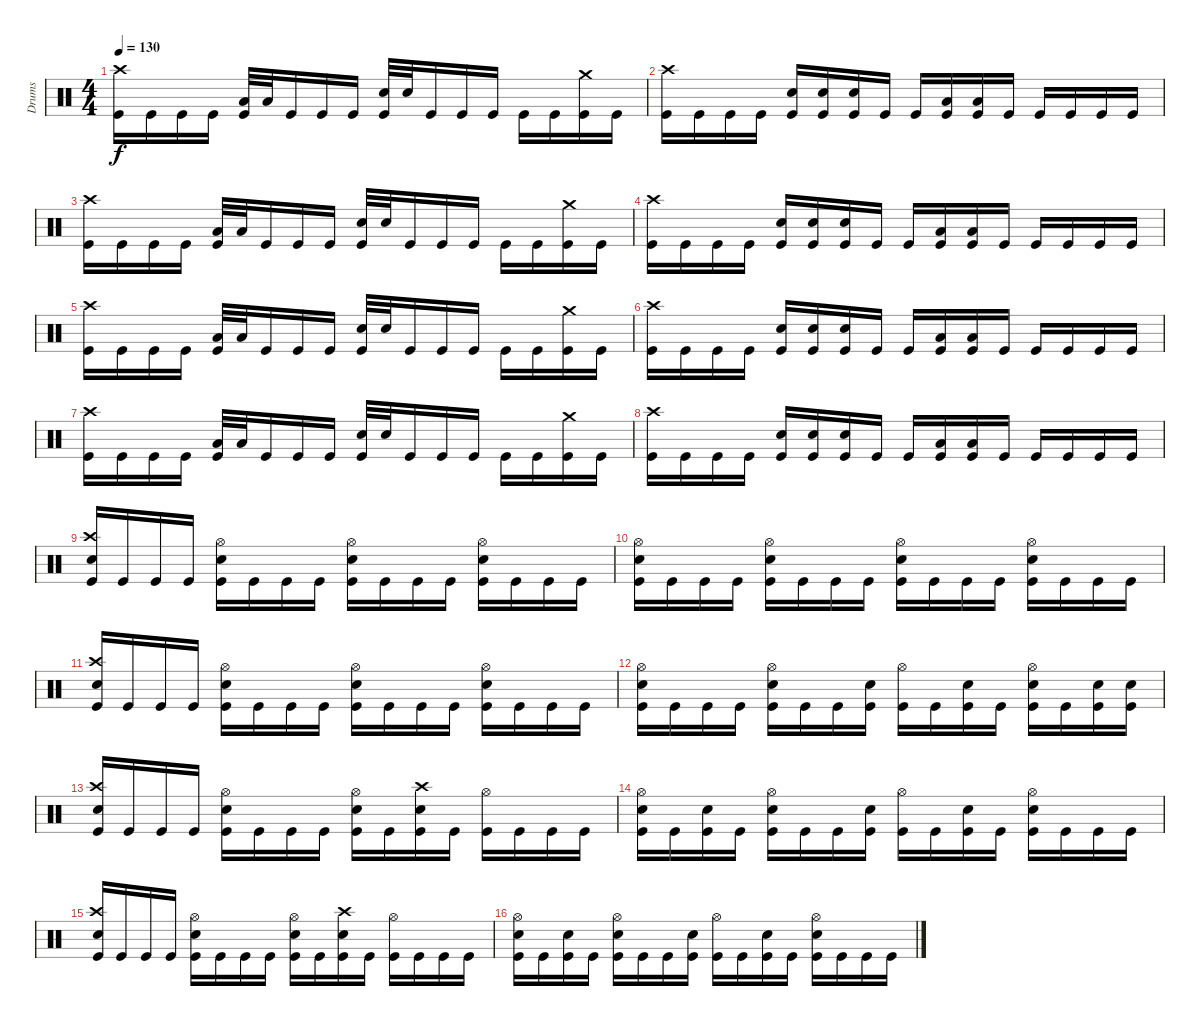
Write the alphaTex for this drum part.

\track ("Drums" "Drums") {instrument percussion}
\staff {score}
\articulation defaults
\ts (4 4)
\tempo 130
\clef neutral
\ks c
("Kick (hit)" "Crash high (hit)").16{dy f} "Kick (hit)".16 "Kick (hit)".16 "Kick (hit)".16 ("Kick (hit)" "Low Tom (hit)").32 "Low Tom (hit)".32 "Kick (hit)".16 "Kick (hit)".16 "Kick (hit)".16 ("Kick (hit)" "Snare (hit) 2").32 "Snare (hit) 2".32 "Kick (hit)".16 "Kick (hit)".16 "Kick (hit)".16 "Kick (hit)".16 "Kick (hit)".16 ("Kick (hit)" "Crash medium (hit)").16 "Kick (hit)".16 |
("Kick (hit)" "Crash high (hit)").16 "Kick (hit)".16 "Kick (hit)".16 "Kick (hit)".16 ("Kick (hit)" "Snare (hit) 2").16 ("Kick (hit)" "Snare (hit) 2").16 ("Kick (hit)" "Snare (hit) 2").16 "Kick (hit)".16 "Kick (hit)".16 ("Kick (hit)" "Low Tom (hit)").16 ("Kick (hit)" "Low Tom (hit)").16 "Kick (hit)".16 "Kick (hit)".16 "Kick (hit)".16 "Kick (hit)".16 "Kick (hit)".16 |
("Kick (hit)" "Crash high (hit)").16 "Kick (hit)".16 "Kick (hit)".16 "Kick (hit)".16 ("Kick (hit)" "Low Tom (hit)").32 "Low Tom (hit)".32 "Kick (hit)".16 "Kick (hit)".16 "Kick (hit)".16 ("Kick (hit)" "Snare (hit) 2").32 "Snare (hit) 2".32 "Kick (hit)".16 "Kick (hit)".16 "Kick (hit)".16 "Kick (hit)".16 "Kick (hit)".16 ("Kick (hit)" "Crash medium (hit)").16 "Kick (hit)".16 |
("Kick (hit)" "Crash high (hit)").16 "Kick (hit)".16 "Kick (hit)".16 "Kick (hit)".16 ("Kick (hit)" "Snare (hit) 2").16 ("Kick (hit)" "Snare (hit) 2").16 ("Kick (hit)" "Snare (hit) 2").16 "Kick (hit)".16 "Kick (hit)".16 ("Kick (hit)" "Low Tom (hit)").16 ("Kick (hit)" "Low Tom (hit)").16 "Kick (hit)".16 "Kick (hit)".16 "Kick (hit)".16 "Kick (hit)".16 "Kick (hit)".16 |
("Kick (hit)" "Crash high (hit)").16 "Kick (hit)".16 "Kick (hit)".16 "Kick (hit)".16 ("Kick (hit)" "Low Tom (hit)").32 "Low Tom (hit)".32 "Kick (hit)".16 "Kick (hit)".16 "Kick (hit)".16 ("Kick (hit)" "Snare (hit) 2").32 "Snare (hit) 2".32 "Kick (hit)".16 "Kick (hit)".16 "Kick (hit)".16 "Kick (hit)".16 "Kick (hit)".16 ("Kick (hit)" "Crash medium (hit)").16 "Kick (hit)".16 |
("Kick (hit)" "Crash high (hit)").16 "Kick (hit)".16 "Kick (hit)".16 "Kick (hit)".16 ("Kick (hit)" "Snare (hit) 2").16 ("Kick (hit)" "Snare (hit) 2").16 ("Kick (hit)" "Snare (hit) 2").16 "Kick (hit)".16 "Kick (hit)".16 ("Kick (hit)" "Low Tom (hit)").16 ("Kick (hit)" "Low Tom (hit)").16 "Kick (hit)".16 "Kick (hit)".16 "Kick (hit)".16 "Kick (hit)".16 "Kick (hit)".16 |
("Kick (hit)" "Crash high (hit)").16 "Kick (hit)".16 "Kick (hit)".16 "Kick (hit)".16 ("Kick (hit)" "Low Tom (hit)").32 "Low Tom (hit)".32 "Kick (hit)".16 "Kick (hit)".16 "Kick (hit)".16 ("Kick (hit)" "Snare (hit) 2").32 "Snare (hit) 2".32 "Kick (hit)".16 "Kick (hit)".16 "Kick (hit)".16 "Kick (hit)".16 "Kick (hit)".16 ("Kick (hit)" "Crash medium (hit)").16 "Kick (hit)".16 |
("Kick (hit)" "Crash high (hit)").16 "Kick (hit)".16 "Kick (hit)".16 "Kick (hit)".16 ("Kick (hit)" "Snare (hit) 2").16 ("Kick (hit)" "Snare (hit) 2").16 ("Kick (hit)" "Snare (hit) 2").16 "Kick (hit)".16 "Kick (hit)".16 ("Kick (hit)" "Low Tom (hit)").16 ("Kick (hit)" "Low Tom (hit)").16 "Kick (hit)".16 "Kick (hit)".16 "Kick (hit)".16 "Kick (hit)".16 "Kick (hit)".16 |
("Kick (hit)" "Snare (hit) 2" "Crash high (hit)").16 "Kick (hit)".16 "Kick (hit)".16 "Kick (hit)".16 ("Kick (hit)" "Snare (hit) 2" "Hi-Hat (open)").16 "Kick (hit)".16 "Kick (hit)".16 "Kick (hit)".16 ("Kick (hit)" "Snare (hit) 2" "Hi-Hat (open)").16 "Kick (hit)".16 "Kick (hit)".16 "Kick (hit)".16 ("Kick (hit)" "Snare (hit) 2" "Hi-Hat (open)").16 "Kick (hit)".16 "Kick (hit)".16 "Kick (hit)".16 |
("Kick (hit)" "Snare (hit) 2" "Hi-Hat (open)").16 "Kick (hit)".16 "Kick (hit)".16 "Kick (hit)".16 ("Kick (hit)" "Snare (hit) 2" "Hi-Hat (open)").16 "Kick (hit)".16 "Kick (hit)".16 "Kick (hit)".16 ("Kick (hit)" "Snare (hit) 2" "Hi-Hat (open)").16 "Kick (hit)".16 "Kick (hit)".16 "Kick (hit)".16 ("Kick (hit)" "Snare (hit) 2" "Hi-Hat (open)").16 "Kick (hit)".16 "Kick (hit)".16 "Kick (hit)".16 |
("Kick (hit)" "Snare (hit) 2" "Crash high (hit)").16 "Kick (hit)".16 "Kick (hit)".16 "Kick (hit)".16 ("Kick (hit)" "Snare (hit) 2" "Hi-Hat (open)").16 "Kick (hit)".16 "Kick (hit)".16 "Kick (hit)".16 ("Kick (hit)" "Snare (hit) 2" "Hi-Hat (open)").16 "Kick (hit)".16 "Kick (hit)".16 "Kick (hit)".16 ("Kick (hit)" "Snare (hit) 2" "Hi-Hat (open)").16 "Kick (hit)".16 "Kick (hit)".16 "Kick (hit)".16 |
("Kick (hit)" "Snare (hit) 2" "Hi-Hat (open)").16 "Kick (hit)".16 "Kick (hit)".16 "Kick (hit)".16 ("Kick (hit)" "Snare (hit) 2" "Hi-Hat (open)").16 "Kick (hit)".16 "Kick (hit)".16 ("Kick (hit)" "Snare (hit) 2").16 ("Kick (hit)" "Hi-Hat (open)").16 "Kick (hit)".16 ("Kick (hit)" "Snare (hit) 2").16 "Kick (hit)".16 ("Kick (hit)" "Snare (hit) 2" "Hi-Hat (open)").16 "Kick (hit)".16 ("Kick (hit)" "Snare (hit) 2").16 ("Kick (hit)" "Snare (hit) 2").16 |
("Kick (hit)" "Snare (hit) 2" "Crash high (hit)").16 "Kick (hit)".16 "Kick (hit)".16 "Kick (hit)".16 ("Kick (hit)" "Snare (hit) 2" "Hi-Hat (open)").16 "Kick (hit)".16 "Kick (hit)".16 "Kick (hit)".16 ("Kick (hit)" "Snare (hit) 2" "Hi-Hat (open)").16 "Kick (hit)".16 ("Kick (hit)" "Snare (hit) 2" "Crash high (hit)").16 "Kick (hit)".16 ("Kick (hit)" "Hi-Hat (open)").16 "Kick (hit)".16 "Kick (hit)".16 "Kick (hit)".16 |
("Kick (hit)" "Snare (hit) 2" "Hi-Hat (open)").16 "Kick (hit)".16 ("Kick (hit)" "Snare (hit) 2").16 "Kick (hit)".16 ("Kick (hit)" "Snare (hit) 2" "Hi-Hat (open)").16 "Kick (hit)".16 "Kick (hit)".16 ("Kick (hit)" "Snare (hit) 2").16 ("Kick (hit)" "Hi-Hat (open)").16 "Kick (hit)".16 ("Kick (hit)" "Snare (hit) 2").16 "Kick (hit)".16 ("Kick (hit)" "Snare (hit) 2" "Hi-Hat (open)").16 "Kick (hit)".16 "Kick (hit)".16 "Kick (hit)".16 |
("Kick (hit)" "Snare (hit) 2" "Crash high (hit)").16 "Kick (hit)".16 "Kick (hit)".16 "Kick (hit)".16 ("Kick (hit)" "Snare (hit) 2" "Hi-Hat (open)").16 "Kick (hit)".16 "Kick (hit)".16 "Kick (hit)".16 ("Kick (hit)" "Snare (hit) 2" "Hi-Hat (open)").16 "Kick (hit)".16 ("Kick (hit)" "Snare (hit) 2" "Crash high (hit)").16 "Kick (hit)".16 ("Kick (hit)" "Hi-Hat (open)").16 "Kick (hit)".16 "Kick (hit)".16 "Kick (hit)".16 |
("Kick (hit)" "Snare (hit) 2" "Hi-Hat (open)").16 "Kick (hit)".16 ("Kick (hit)" "Snare (hit) 2").16 "Kick (hit)".16 ("Kick (hit)" "Snare (hit) 2" "Hi-Hat (open)").16 "Kick (hit)".16 "Kick (hit)".16 ("Kick (hit)" "Snare (hit) 2").16 ("Kick (hit)" "Hi-Hat (open)").16 "Kick (hit)".16 ("Kick (hit)" "Snare (hit) 2").16 "Kick (hit)".16 ("Kick (hit)" "Snare (hit) 2" "Hi-Hat (open)").16 "Kick (hit)".16 "Kick (hit)".16 "Kick (hit)".16
